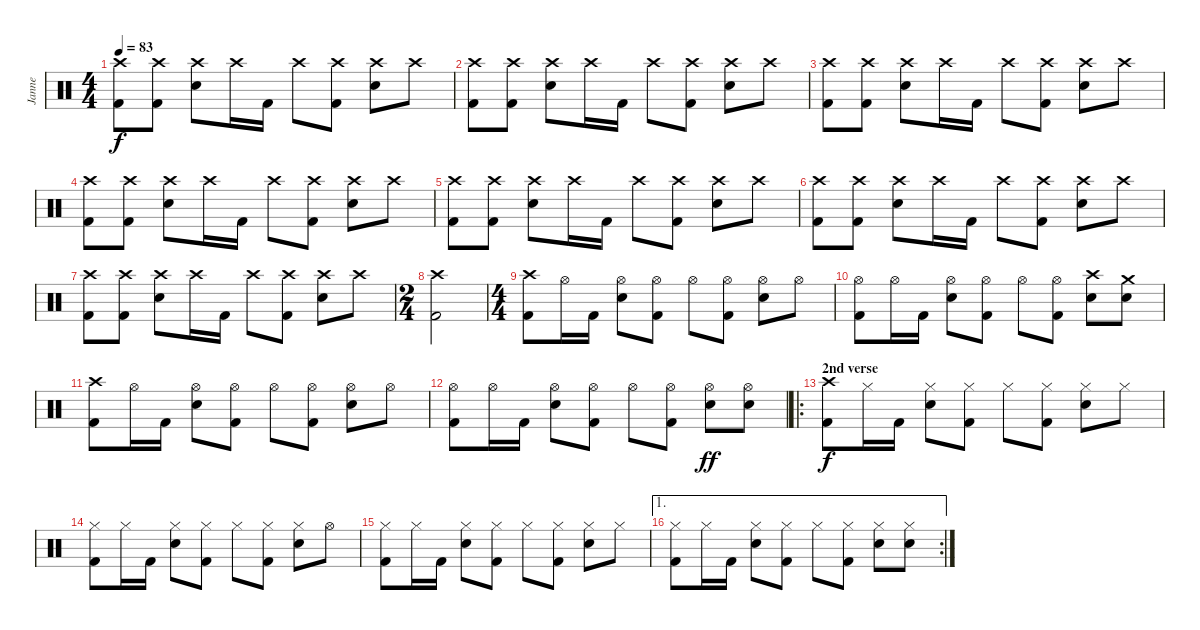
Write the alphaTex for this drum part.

\track ("Janne" "Janne") {instrument percussion}
\staff {score}
\articulation defaults
\ts (4 4)
\tempo 83
\clef neutral
\ks c
("Crash high (hit)" "Kick (hit) 2").8{dy f} ("Crash high (hit)" "Kick (hit) 2").8 ("Crash high (hit)" "Electric Snare (hit)").8 "Crash high (hit)".16 "Kick (hit) 2".16 "Crash high (hit)".8 ("Crash high (hit)" "Kick (hit) 2").8 ("Crash high (hit)" "Electric Snare (hit)").8 "Crash high (hit)".8 |
("Crash high (hit)" "Kick (hit) 2").8 ("Crash high (hit)" "Kick (hit) 2").8 ("Crash high (hit)" "Electric Snare (hit)").8 "Crash high (hit)".16 "Kick (hit) 2".16 "Crash high (hit)".8 ("Crash high (hit)" "Kick (hit) 2").8 ("Crash high (hit)" "Electric Snare (hit)").8 "Crash high (hit)".8 |
("Crash high (hit)" "Kick (hit) 2").8 ("Crash high (hit)" "Kick (hit) 2").8 ("Crash high (hit)" "Electric Snare (hit)").8 "Crash high (hit)".16 "Kick (hit) 2".16 "Crash high (hit)".8 ("Crash high (hit)" "Kick (hit) 2").8 ("Crash high (hit)" "Electric Snare (hit)").8 "Crash high (hit)".8 |
("Crash high (hit)" "Kick (hit) 2").8 ("Crash high (hit)" "Kick (hit) 2").8 ("Crash high (hit)" "Electric Snare (hit)").8 "Crash high (hit)".16 "Kick (hit) 2".16 "Crash high (hit)".8 ("Crash high (hit)" "Kick (hit) 2").8 ("Crash high (hit)" "Electric Snare (hit)").8 "Crash high (hit)".8 |
("Crash high (hit)" "Kick (hit) 2").8 ("Crash high (hit)" "Kick (hit) 2").8 ("Crash high (hit)" "Electric Snare (hit)").8 "Crash high (hit)".16 "Kick (hit) 2".16 "Crash high (hit)".8 ("Crash high (hit)" "Kick (hit) 2").8 ("Crash high (hit)" "Electric Snare (hit)").8 "Crash high (hit)".8 |
("Crash high (hit)" "Kick (hit) 2").8 ("Crash high (hit)" "Kick (hit) 2").8 ("Crash high (hit)" "Electric Snare (hit)").8 "Crash high (hit)".16 "Kick (hit) 2".16 "Crash high (hit)".8 ("Crash high (hit)" "Kick (hit) 2").8 ("Crash high (hit)" "Electric Snare (hit)").8 "Crash high (hit)".8 |
("Crash high (hit)" "Kick (hit) 2").8 ("Crash high (hit)" "Kick (hit) 2").8 ("Crash high (hit)" "Electric Snare (hit)").8 "Crash high (hit)".16 "Kick (hit) 2".16 "Crash high (hit)".8 ("Crash high (hit)" "Kick (hit) 2").8 ("Crash high (hit)" "Electric Snare (hit)").8 "Crash high (hit)".8 |
\ts (2 4)
("Crash high (hit)" "Kick (hit) 2").2 |
\ts (4 4)
("Crash high (hit)" "Kick (hit) 2").8 "Hi-Hat (open)".16 "Kick (hit) 2".16 ("Hi-Hat (open)" "Electric Snare (hit)").8 ("Hi-Hat (open)" "Kick (hit) 2").8 "Hi-Hat (open)".8 ("Hi-Hat (open)" "Kick (hit) 2").8 ("Hi-Hat (open)" "Electric Snare (hit)").8 "Hi-Hat (open)".8 |
("Hi-Hat (open)" "Kick (hit) 2").8 "Hi-Hat (open)".16 "Kick (hit) 2".16 ("Hi-Hat (open)" "Electric Snare (hit)").8 ("Hi-Hat (open)" "Kick (hit) 2").8 "Hi-Hat (open)".8 ("Hi-Hat (open)" "Kick (hit) 2").8 ("Crash high (hit)" "Electric Snare (hit)").8 ("Crash medium (hit)" "Electric Snare (hit)").8 |
("Crash high (hit)" "Kick (hit) 2").8 "Hi-Hat (open)".16 "Kick (hit) 2".16 ("Hi-Hat (open)" "Electric Snare (hit)").8 ("Hi-Hat (open)" "Kick (hit) 2").8 "Hi-Hat (open)".8 ("Hi-Hat (open)" "Kick (hit) 2").8 ("Hi-Hat (open)" "Electric Snare (hit)").8 "Hi-Hat (open)".8 |
("Hi-Hat (open)" "Kick (hit) 2").8 "Hi-Hat (open)".16 "Kick (hit) 2".16 ("Hi-Hat (open)" "Electric Snare (hit)").8 ("Hi-Hat (open)" "Kick (hit) 2").8 "Hi-Hat (open)".8 ("Hi-Hat (open)" "Kick (hit) 2").8 ("Hi-Hat (open)" "Electric Snare (hit)").8{dy ff} ("Hi-Hat (open)" "Electric Snare (hit)").8 |
\ro
\section ("" "2nd verse")
("Crash high (hit)" "Kick (hit) 2").8{dy f} "Hi-Hat (closed)".16 "Kick (hit) 2".16 ("Hi-Hat (closed)" "Electric Snare (hit)").8 ("Hi-Hat (closed)" "Kick (hit) 2").8 "Hi-Hat (closed)".8 ("Hi-Hat (closed)" "Kick (hit) 2").8 ("Hi-Hat (closed)" "Electric Snare (hit)").8 "Hi-Hat (closed)".8 |
("Hi-Hat (closed)" "Kick (hit) 2").8 "Hi-Hat (closed)".16 "Kick (hit) 2".16 ("Hi-Hat (closed)" "Electric Snare (hit)").8 ("Hi-Hat (closed)" "Kick (hit) 2").8 "Hi-Hat (closed)".8 ("Hi-Hat (closed)" "Kick (hit) 2").8 ("Hi-Hat (closed)" "Electric Snare (hit)").8 "Hi-Hat (open)".8 |
("Hi-Hat (closed)" "Kick (hit) 2").8 "Hi-Hat (closed)".16 "Kick (hit) 2".16 ("Hi-Hat (closed)" "Electric Snare (hit)").8 ("Hi-Hat (closed)" "Kick (hit) 2").8 "Hi-Hat (closed)".8 ("Hi-Hat (closed)" "Kick (hit) 2").8 ("Hi-Hat (closed)" "Electric Snare (hit)").8 "Hi-Hat (closed)".8 |
\ae 1
\rc 2
("Hi-Hat (closed)" "Kick (hit) 2").8 "Hi-Hat (closed)".16 "Kick (hit) 2".16 ("Hi-Hat (closed)" "Electric Snare (hit)").8 ("Hi-Hat (closed)" "Kick (hit) 2").8 "Hi-Hat (closed)".8 ("Hi-Hat (closed)" "Kick (hit) 2").8 ("Hi-Hat (closed)" "Electric Snare (hit)").8 ("Hi-Hat (closed)" "Electric Snare (hit)").8
